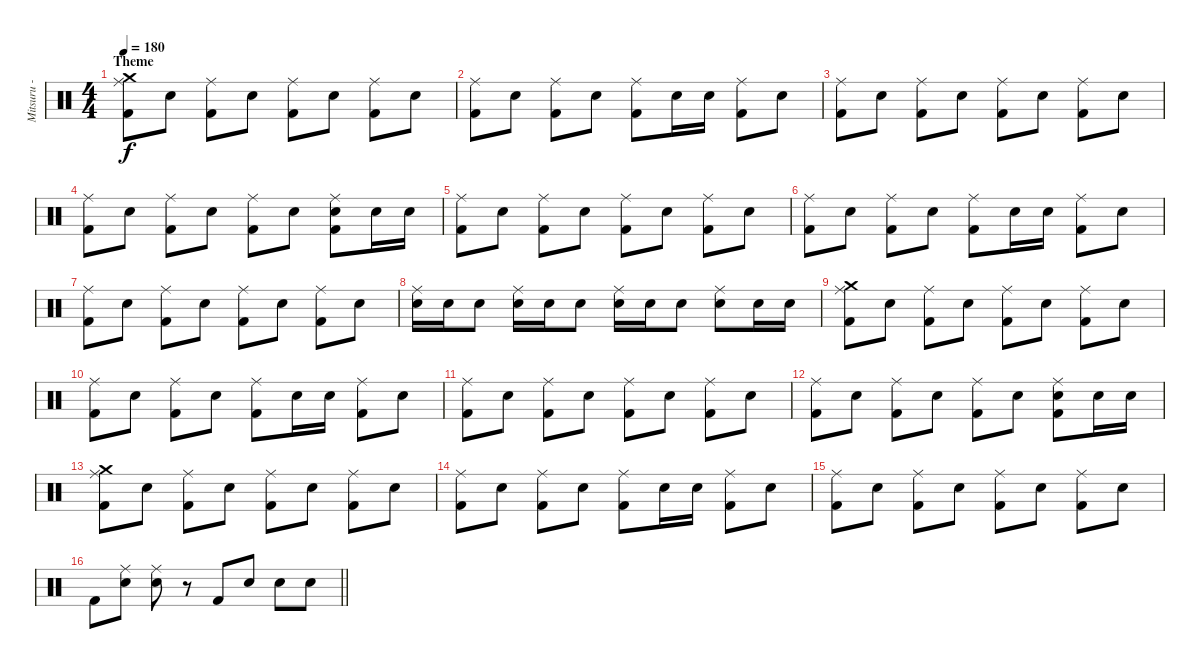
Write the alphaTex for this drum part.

\track ("Mitsuru - Batterie" "Mitsuru - ") {instrument percussion}
\staff {score}
\articulation defaults
\ts (4 4)
\section ("" "Theme")
\tempo 180
\clef neutral
\ks c
("Crash medium (hit)" "Ride (middle)" "Kick (hit) 2").8{dy f} "Electric Snare (hit)".8 ("Ride (middle)" "Kick (hit) 2").8 "Electric Snare (hit)".8 ("Ride (middle)" "Kick (hit) 2").8 "Electric Snare (hit)".8 ("Ride (middle)" "Kick (hit) 2").8 "Electric Snare (hit)".8 |
("Ride (middle)" "Kick (hit) 2").8 "Electric Snare (hit)".8 ("Ride (middle)" "Kick (hit) 2").8 "Electric Snare (hit)".8 ("Ride (middle)" "Kick (hit) 2").8 "Electric Snare (hit)".16 "Electric Snare (hit)".16 ("Ride (middle)" "Kick (hit) 2").8 "Electric Snare (hit)".8 |
("Ride (middle)" "Kick (hit) 2").8 "Electric Snare (hit)".8 ("Ride (middle)" "Kick (hit) 2").8 "Electric Snare (hit)".8 ("Ride (middle)" "Kick (hit) 2").8 "Electric Snare (hit)".8 ("Ride (middle)" "Kick (hit) 2").8 "Electric Snare (hit)".8 |
("Ride (middle)" "Kick (hit) 2").8 "Electric Snare (hit)".8 ("Ride (middle)" "Kick (hit) 2").8 "Electric Snare (hit)".8 ("Ride (middle)" "Kick (hit) 2").8 "Electric Snare (hit)".8 ("Ride (middle)" "Electric Snare (hit)" "Kick (hit) 2").8 "Electric Snare (hit)".16 "Electric Snare (hit)".16 |
("Ride (middle)" "Kick (hit) 2").8 "Electric Snare (hit)".8 ("Ride (middle)" "Kick (hit) 2").8 "Electric Snare (hit)".8 ("Ride (middle)" "Kick (hit) 2").8 "Electric Snare (hit)".8 ("Ride (middle)" "Kick (hit) 2").8 "Electric Snare (hit)".8 |
("Ride (middle)" "Kick (hit) 2").8 "Electric Snare (hit)".8 ("Ride (middle)" "Kick (hit) 2").8 "Electric Snare (hit)".8 ("Ride (middle)" "Kick (hit) 2").8 "Electric Snare (hit)".16 "Electric Snare (hit)".16 ("Ride (middle)" "Kick (hit) 2").8 "Electric Snare (hit)".8 |
("Ride (middle)" "Kick (hit) 2").8 "Electric Snare (hit)".8 ("Ride (middle)" "Kick (hit) 2").8 "Electric Snare (hit)".8 ("Ride (middle)" "Kick (hit) 2").8 "Electric Snare (hit)".8 ("Ride (middle)" "Kick (hit) 2").8 "Electric Snare (hit)".8 |
("Ride (middle)" "Electric Snare (hit)").16 "Electric Snare (hit)".16 "Electric Snare (hit)".8 ("Ride (middle)" "Electric Snare (hit)").16 "Electric Snare (hit)".16 "Electric Snare (hit)".8 ("Ride (middle)" "Electric Snare (hit)").16 "Electric Snare (hit)".16 "Electric Snare (hit)".8 ("Ride (middle)" "Electric Snare (hit)").8 "Electric Snare (hit)".16 "Electric Snare (hit)".16 |
("Crash medium (hit)" "Ride (middle)" "Kick (hit) 2").8 "Electric Snare (hit)".8 ("Ride (middle)" "Kick (hit) 2").8 "Electric Snare (hit)".8 ("Ride (middle)" "Kick (hit) 2").8 "Electric Snare (hit)".8 ("Ride (middle)" "Kick (hit) 2").8 "Electric Snare (hit)".8 |
("Ride (middle)" "Kick (hit) 2").8 "Electric Snare (hit)".8 ("Ride (middle)" "Kick (hit) 2").8 "Electric Snare (hit)".8 ("Ride (middle)" "Kick (hit) 2").8 "Electric Snare (hit)".16 "Electric Snare (hit)".16 ("Ride (middle)" "Kick (hit) 2").8 "Electric Snare (hit)".8 |
("Ride (middle)" "Kick (hit) 2").8 "Electric Snare (hit)".8 ("Ride (middle)" "Kick (hit) 2").8 "Electric Snare (hit)".8 ("Ride (middle)" "Kick (hit) 2").8 "Electric Snare (hit)".8 ("Ride (middle)" "Kick (hit) 2").8 "Electric Snare (hit)".8 |
("Ride (middle)" "Kick (hit) 2").8 "Electric Snare (hit)".8 ("Ride (middle)" "Kick (hit) 2").8 "Electric Snare (hit)".8 ("Ride (middle)" "Kick (hit) 2").8 "Electric Snare (hit)".8 ("Ride (middle)" "Electric Snare (hit)" "Kick (hit) 2").8 "Electric Snare (hit)".16 "Electric Snare (hit)".16 |
("Crash medium (hit)" "Ride (middle)" "Kick (hit) 2").8 "Electric Snare (hit)".8 ("Ride (middle)" "Kick (hit) 2").8 "Electric Snare (hit)".8 ("Ride (middle)" "Kick (hit) 2").8 "Electric Snare (hit)".8 ("Ride (middle)" "Kick (hit) 2").8 "Electric Snare (hit)".8 |
("Ride (middle)" "Kick (hit) 2").8 "Electric Snare (hit)".8 ("Ride (middle)" "Kick (hit) 2").8 "Electric Snare (hit)".8 ("Ride (middle)" "Kick (hit) 2").8 "Electric Snare (hit)".16 "Electric Snare (hit)".16 ("Ride (middle)" "Kick (hit) 2").8 "Electric Snare (hit)".8 |
("Ride (middle)" "Kick (hit) 2").8 "Electric Snare (hit)".8 ("Ride (middle)" "Kick (hit) 2").8 "Electric Snare (hit)".8 ("Ride (middle)" "Kick (hit) 2").8 "Electric Snare (hit)".8 ("Ride (middle)" "Kick (hit) 2").8 "Electric Snare (hit)".8 |
\barLineRight lightlight "Kick (hit) 2".8
("Ride (middle)" "Electric Snare (hit)").8 ("Ride (middle)" "Electric Snare (hit)").8 r.8 "Kick (hit) 2".8 "Electric Snare (hit)".8 "Electric Snare (hit)".8 "Electric Snare (hit)".8
